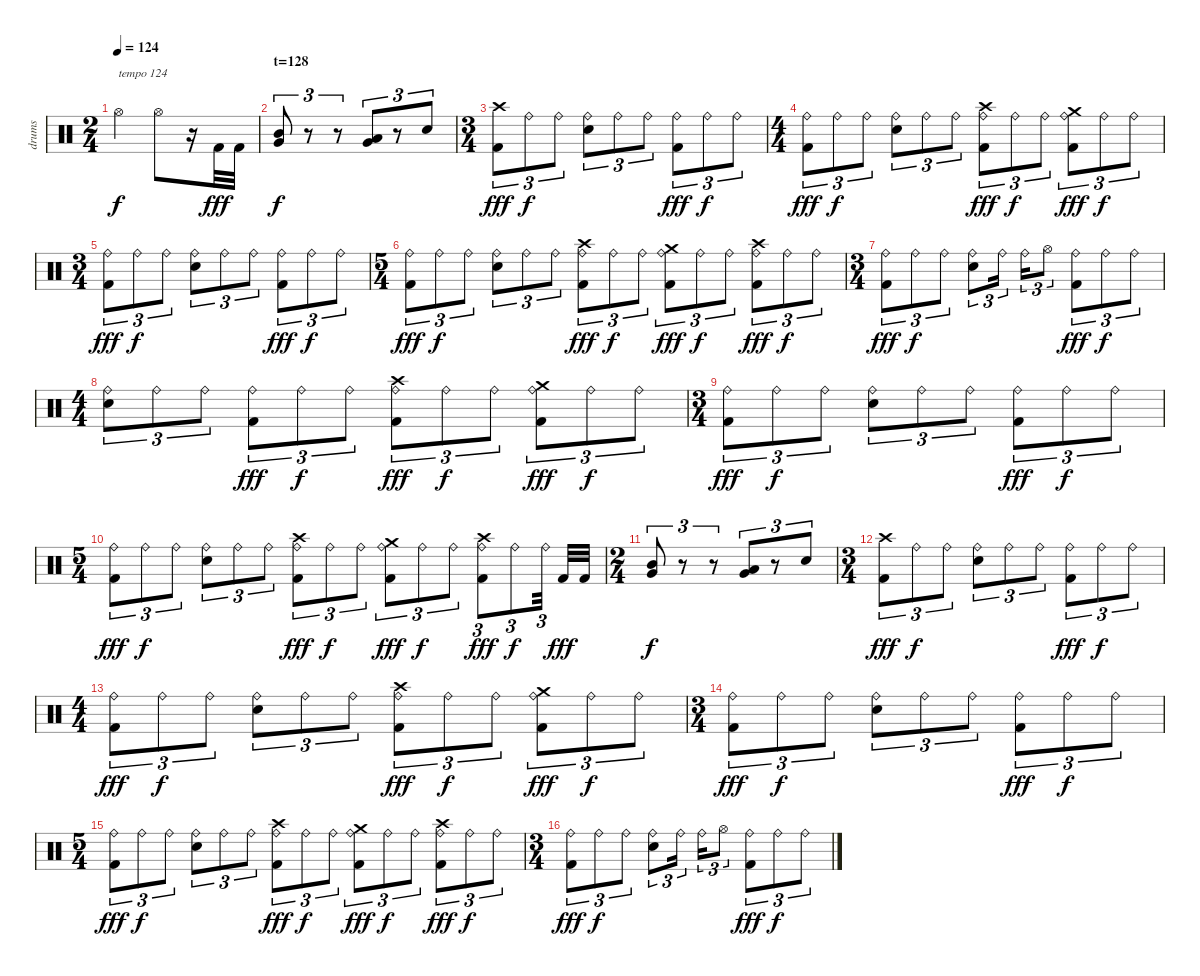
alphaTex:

\track ("drums" "drums") {instrument percussion}
\staff {score}
\articulation defaults
\ts (2 4)
\tempo 124
\clef neutral
\ks c "Hi-Hat (open)".4{txt "tempo 124" dy f} "Hi-Hat (open)".8
r.16 "Kick (hit) 2".32{dy fff} "Kick (hit) 2".32 |
\section ("" "t=128")
("Mid Tom (hit)" "Very Low Tom (hit)").8{tu (3 2) dy f} r.8{tu (3 2)} r.8{tu (3 2)} ("Low Tom (hit)" "Very Low Tom (hit)").8{tu (3 2)} r.8{tu (3 2)} "Snare (hit) 2".8{tu (3 2)} |
\ts (3 4)
("Crash high (hit)" "Kick (hit) 2").8{tu (3 2) dy fff} "Ride (bell)".8{tu (3 2) dy f} "Ride (bell)".8{tu (3 2)} ("Ride (bell)" "Snare (hit) 2").8{tu (3 2)} "Ride (bell)".8{tu (3 2)} "Ride (bell)".8{tu (3 2)} ("Ride (bell)" "Kick (hit) 2").8{tu (3 2) dy fff} "Ride (bell)".8{tu (3 2) dy f} "Ride (bell)".8{tu (3 2)} |
\ts (4 4)
("Ride (bell)" "Kick (hit) 2").8{tu (3 2) dy fff} "Ride (bell)".8{tu (3 2) dy f} "Ride (bell)".8{tu (3 2)} ("Ride (bell)" "Snare (hit) 2").8{tu (3 2)} "Ride (bell)".8{tu (3 2)} "Ride (bell)".8{tu (3 2)} ("Crash high (hit)" "Ride (bell)" "Kick (hit) 2").8{tu (3 2) dy fff} "Ride (bell)".8{tu (3 2) dy f} "Ride (bell)".8{tu (3 2)} ("Crash medium (hit)" "Ride (bell)" "Kick (hit) 2").8{tu (3 2) dy fff} "Ride (bell)".8{tu (3 2) dy f} "Ride (bell)".8{tu (3 2)} |
\ts (3 4)
("Ride (bell)" "Kick (hit) 2").8{tu (3 2) dy fff} "Ride (bell)".8{tu (3 2) dy f} "Ride (bell)".8{tu (3 2)} ("Ride (bell)" "Snare (hit) 2").8{tu (3 2)} "Ride (bell)".8{tu (3 2)} "Ride (bell)".8{tu (3 2)} ("Ride (bell)" "Kick (hit) 2").8{tu (3 2) dy fff} "Ride (bell)".8{tu (3 2) dy f} "Ride (bell)".8{tu (3 2)} |
\ts (5 4)
("Ride (bell)" "Kick (hit) 2").8{tu (3 2) dy fff} "Ride (bell)".8{tu (3 2) dy f} "Ride (bell)".8{tu (3 2)} ("Ride (bell)" "Snare (hit) 2").8{tu (3 2)} "Ride (bell)".8{tu (3 2)} "Ride (bell)".8{tu (3 2)} ("Crash high (hit)" "Ride (bell)" "Kick (hit) 2").8{tu (3 2) dy fff} "Ride (bell)".8{tu (3 2) dy f} "Ride (bell)".8{tu (3 2)} ("Crash medium (hit)" "Ride (bell)" "Kick (hit) 2").8{tu (3 2) dy fff} "Ride (bell)".8{tu (3 2) dy f} "Ride (bell)".8{tu (3 2)} ("Crash high (hit)" "Ride (bell)" "Kick (hit) 2").8{tu (3 2) dy fff} "Ride (bell)".8{tu (3 2) dy f} "Ride (bell)".8{tu (3 2)} |
\ts (3 4)
("Ride (bell)" "Kick (hit) 2").8{tu (3 2) dy fff} "Ride (bell)".8{tu (3 2) dy f} "Ride (bell)".8{tu (3 2)} ("Ride (bell)" "Snare (hit) 2").8{tu (3 2)} "Ride (bell)".16{tu (3 2)} "Ride (bell)".16{tu (3 2)} "Hi-Hat (open)".8{tu (3 2)} ("Ride (bell)" "Kick (hit) 2").8{tu (3 2) dy fff} "Ride (bell)".8{tu (3 2) dy f} "Ride (bell)".8{tu (3 2)} |
\ts (4 4)
("Ride (bell)" "Snare (hit) 2").8{tu (3 2)} "Ride (bell)".8{tu (3 2)} "Ride (bell)".8{tu (3 2)} ("Ride (bell)" "Kick (hit) 2").8{tu (3 2) dy fff} "Ride (bell)".8{tu (3 2) dy f} "Ride (bell)".8{tu (3 2)} ("Crash high (hit)" "Ride (bell)" "Kick (hit) 2").8{tu (3 2) dy fff} "Ride (bell)".8{tu (3 2) dy f} "Ride (bell)".8{tu (3 2)} ("Crash medium (hit)" "Ride (bell)" "Kick (hit) 2").8{tu (3 2) dy fff} "Ride (bell)".8{tu (3 2) dy f} "Ride (bell)".8{tu (3 2)} |
\ts (3 4)
("Ride (bell)" "Kick (hit) 2").8{tu (3 2) dy fff} "Ride (bell)".8{tu (3 2) dy f} "Ride (bell)".8{tu (3 2)} ("Ride (bell)" "Snare (hit) 2").8{tu (3 2)} "Ride (bell)".8{tu (3 2)} "Ride (bell)".8{tu (3 2)} ("Ride (bell)" "Kick (hit) 2").8{tu (3 2) dy fff} "Ride (bell)".8{tu (3 2) dy f} "Ride (bell)".8{tu (3 2)} |
\ts (5 4)
("Ride (bell)" "Kick (hit) 2").8{tu (3 2) dy fff} "Ride (bell)".8{tu (3 2) dy f} "Ride (bell)".8{tu (3 2)} ("Ride (bell)" "Snare (hit) 2").8{tu (3 2)} "Ride (bell)".8{tu (3 2)} "Ride (bell)".8{tu (3 2)} ("Crash high (hit)" "Ride (bell)" "Kick (hit) 2").8{tu (3 2) dy fff} "Ride (bell)".8{tu (3 2) dy f} "Ride (bell)".8{tu (3 2)} ("Crash medium (hit)" "Ride (bell)" "Kick (hit) 2").8{tu (3 2) dy fff} "Ride (bell)".8{tu (3 2) dy f} "Ride (bell)".8{tu (3 2)} ("Crash high (hit)" "Ride (bell)" "Kick (hit) 2").8{tu (3 2) dy fff} "Ride (bell)".8{tu (3 2) dy f} "Ride (bell)".32{tu (3 2)} "Kick (hit) 2".32{dy fff} "Kick (hit) 2".32 |
\ts (2 4)
("Mid Tom (hit)" "Very Low Tom (hit)").8{tu (3 2) dy f} r.8{tu (3 2)} r.8{tu (3 2)} ("Low Tom (hit)" "Very Low Tom (hit)").8{tu (3 2)} r.8{tu (3 2)} "Snare (hit) 2".8{tu (3 2)} |
\ts (3 4)
("Crash high (hit)" "Kick (hit) 2").8{tu (3 2) dy fff} "Ride (bell)".8{tu (3 2) dy f} "Ride (bell)".8{tu (3 2)} ("Ride (bell)" "Snare (hit) 2").8{tu (3 2)} "Ride (bell)".8{tu (3 2)} "Ride (bell)".8{tu (3 2)} ("Ride (bell)" "Kick (hit) 2").8{tu (3 2) dy fff} "Ride (bell)".8{tu (3 2) dy f} "Ride (bell)".8{tu (3 2)} |
\ts (4 4)
("Ride (bell)" "Kick (hit) 2").8{tu (3 2) dy fff} "Ride (bell)".8{tu (3 2) dy f} "Ride (bell)".8{tu (3 2)} ("Ride (bell)" "Snare (hit) 2").8{tu (3 2)} "Ride (bell)".8{tu (3 2)} "Ride (bell)".8{tu (3 2)} ("Crash high (hit)" "Ride (bell)" "Kick (hit) 2").8{tu (3 2) dy fff} "Ride (bell)".8{tu (3 2) dy f} "Ride (bell)".8{tu (3 2)} ("Crash medium (hit)" "Ride (bell)" "Kick (hit) 2").8{tu (3 2) dy fff} "Ride (bell)".8{tu (3 2) dy f} "Ride (bell)".8{tu (3 2)} |
\ts (3 4)
("Ride (bell)" "Kick (hit) 2").8{tu (3 2) dy fff} "Ride (bell)".8{tu (3 2) dy f} "Ride (bell)".8{tu (3 2)} ("Ride (bell)" "Snare (hit) 2").8{tu (3 2)} "Ride (bell)".8{tu (3 2)} "Ride (bell)".8{tu (3 2)} ("Ride (bell)" "Kick (hit) 2").8{tu (3 2) dy fff} "Ride (bell)".8{tu (3 2) dy f} "Ride (bell)".8{tu (3 2)} |
\ts (5 4)
("Ride (bell)" "Kick (hit) 2").8{tu (3 2) dy fff} "Ride (bell)".8{tu (3 2) dy f} "Ride (bell)".8{tu (3 2)} ("Ride (bell)" "Snare (hit) 2").8{tu (3 2)} "Ride (bell)".8{tu (3 2)} "Ride (bell)".8{tu (3 2)} ("Crash high (hit)" "Ride (bell)" "Kick (hit) 2").8{tu (3 2) dy fff} "Ride (bell)".8{tu (3 2) dy f} "Ride (bell)".8{tu (3 2)} ("Crash medium (hit)" "Ride (bell)" "Kick (hit) 2").8{tu (3 2) dy fff} "Ride (bell)".8{tu (3 2) dy f} "Ride (bell)".8{tu (3 2)} ("Crash high (hit)" "Ride (bell)" "Kick (hit) 2").8{tu (3 2) dy fff} "Ride (bell)".8{tu (3 2) dy f} "Ride (bell)".8{tu (3 2)} |
\ts (3 4)
("Ride (bell)" "Kick (hit) 2").8{tu (3 2) dy fff} "Ride (bell)".8{tu (3 2) dy f} "Ride (bell)".8{tu (3 2)} ("Ride (bell)" "Snare (hit) 2").8{tu (3 2)} "Ride (bell)".16{tu (3 2)} "Ride (bell)".16{tu (3 2)} "Hi-Hat (open)".8{tu (3 2)} ("Ride (bell)" "Kick (hit) 2").8{tu (3 2) dy fff} "Ride (bell)".8{tu (3 2) dy f} "Ride (bell)".8{tu (3 2)}
